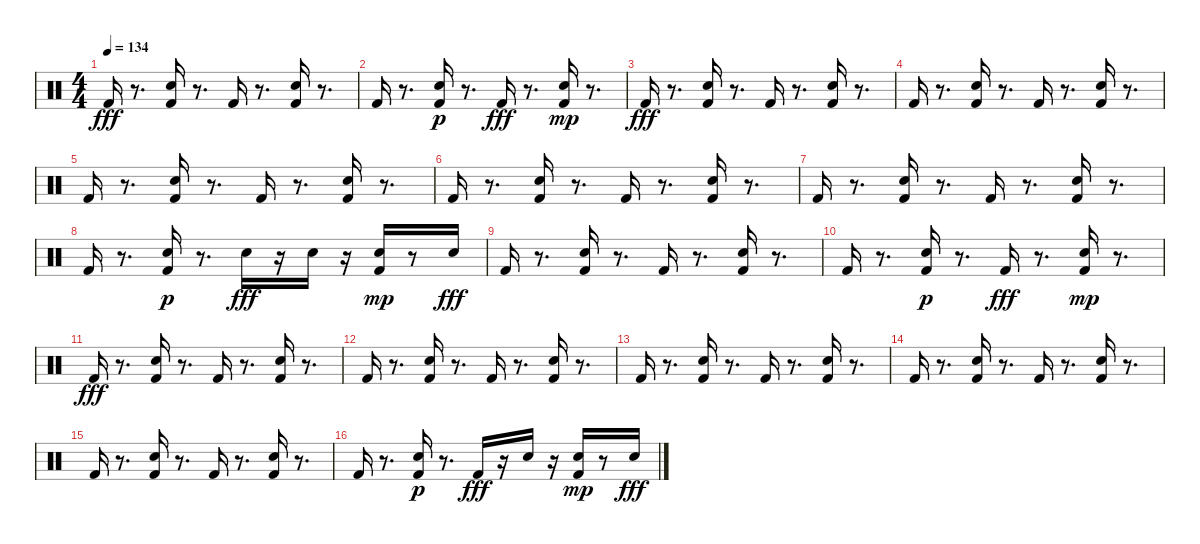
\track "" {instrument percussion}
\staff {score}
\articulation defaults
\ts (4 4)
\tempo 134
\clef neutral
\ks c "Kick (hit) 2".16{dy fff}
r.8{d} ("Kick (hit) 2" "Snare (hit) 2").16 r.8{d} "Kick (hit) 2".16 r.8{d} ("Kick (hit) 2" "Snare (hit) 2").16 r.8{d} |
"Kick (hit) 2".16 r.8{d} ("Snare (hit) 2" "Kick (hit) 2").16{dy p} r.8{d} "Kick (hit) 2".16{dy fff} r.8{d} ("Snare (hit) 2" "Kick (hit) 2").16{dy mp} r.8{d} |
"Kick (hit) 2".16{dy fff} r.8{d} ("Kick (hit) 2" "Snare (hit) 2").16 r.8{d} "Kick (hit) 2".16 r.8{d} ("Kick (hit) 2" "Snare (hit) 2").16 r.8{d} |
"Kick (hit) 2".16 r.8{d} ("Kick (hit) 2" "Snare (hit) 2").16 r.8{d} "Kick (hit) 2".16 r.8{d} ("Kick (hit) 2" "Snare (hit) 2").16 r.8{d} |
"Kick (hit) 2".16 r.8{d} ("Kick (hit) 2" "Snare (hit) 2").16 r.8{d} "Kick (hit) 2".16 r.8{d} ("Kick (hit) 2" "Snare (hit) 2").16 r.8{d} |
"Kick (hit) 2".16 r.8{d} ("Kick (hit) 2" "Snare (hit) 2").16 r.8{d} "Kick (hit) 2".16 r.8{d} ("Kick (hit) 2" "Snare (hit) 2").16 r.8{d} |
"Kick (hit) 2".16 r.8{d} ("Kick (hit) 2" "Snare (hit) 2").16 r.8{d} "Kick (hit) 2".16 r.8{d} ("Kick (hit) 2" "Snare (hit) 2").16 r.8{d} |
"Kick (hit) 2".16 r.8{d} ("Snare (hit) 2" "Kick (hit) 2").16{dy p} r.8{d} "Snare (hit) 2".16{dy fff} r.16 "Snare (hit) 2".16 r.16 ("Snare (hit) 2" "Kick (hit) 2").16{dy mp} r.8 "Snare (hit) 2".16{dy fff} |
"Kick (hit) 2".16 r.8{d} ("Kick (hit) 2" "Snare (hit) 2").16 r.8{d} "Kick (hit) 2".16 r.8{d} ("Kick (hit) 2" "Snare (hit) 2").16 r.8{d} |
"Kick (hit) 2".16 r.8{d} ("Snare (hit) 2" "Kick (hit) 2").16{dy p} r.8{d} "Kick (hit) 2".16{dy fff} r.8{d} ("Snare (hit) 2" "Kick (hit) 2").16{dy mp} r.8{d} |
"Kick (hit) 2".16{dy fff} r.8{d} ("Kick (hit) 2" "Snare (hit) 2").16 r.8{d} "Kick (hit) 2".16 r.8{d} ("Kick (hit) 2" "Snare (hit) 2").16 r.8{d} |
"Kick (hit) 2".16 r.8{d} ("Kick (hit) 2" "Snare (hit) 2").16 r.8{d} "Kick (hit) 2".16 r.8{d} ("Kick (hit) 2" "Snare (hit) 2").16 r.8{d} |
"Kick (hit) 2".16 r.8{d} ("Kick (hit) 2" "Snare (hit) 2").16 r.8{d} "Kick (hit) 2".16 r.8{d} ("Kick (hit) 2" "Snare (hit) 2").16 r.8{d} |
"Kick (hit) 2".16 r.8{d} ("Kick (hit) 2" "Snare (hit) 2").16 r.8{d} "Kick (hit) 2".16 r.8{d} ("Kick (hit) 2" "Snare (hit) 2").16 r.8{d} |
"Kick (hit) 2".16 r.8{d} ("Kick (hit) 2" "Snare (hit) 2").16 r.8{d} "Kick (hit) 2".16 r.8{d} ("Kick (hit) 2" "Snare (hit) 2").16 r.8{d} |
"Kick (hit) 2".16 r.8{d} ("Snare (hit) 2" "Kick (hit) 2").16{dy p} r.8{d} "Kick (hit) 2".16{dy fff} r.16 "Snare (hit) 2".16 r.16 ("Snare (hit) 2" "Kick (hit) 2").16{dy mp} r.8 "Snare (hit) 2".16{dy fff}
